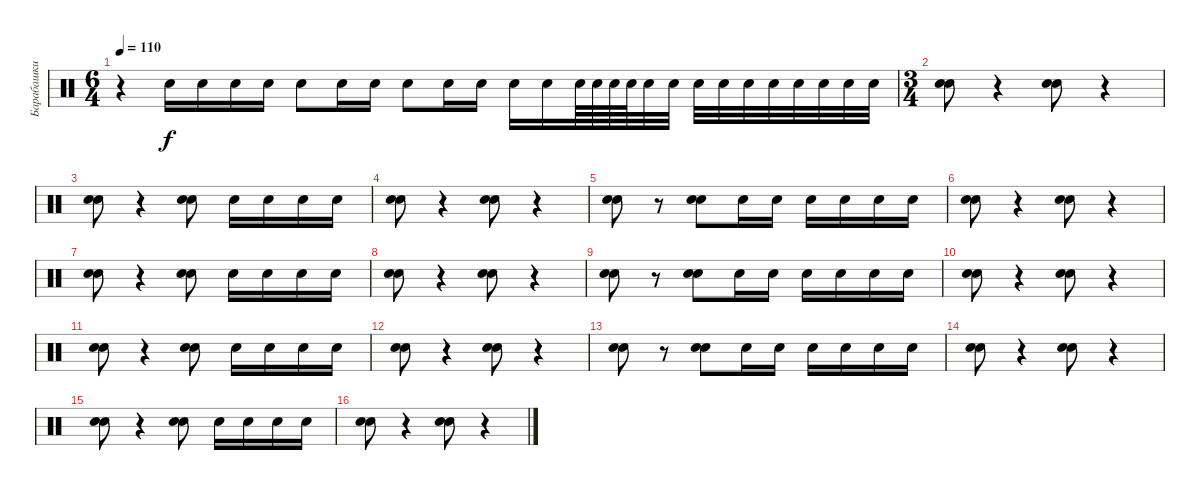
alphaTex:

\track ("Барабашки Middle" "Барабашки ") {instrument percussion}
\staff {score}
\articulation defaults
\ts (6 4)
\tempo 110
\clef neutral
\ks c
r.4{dy f} "Electric Snare (hit)".16 "Electric Snare (hit)".16 "Electric Snare (hit)".16 "Electric Snare (hit)".16 "Electric Snare (hit)".8 "Electric Snare (hit)".16 "Electric Snare (hit)".16 "Electric Snare (hit)".8 "Electric Snare (hit)".16 "Electric Snare (hit)".16 "Electric Snare (hit)".16 "Electric Snare (hit)".16 "Electric Snare (hit)".64 "Electric Snare (hit)".64 "Electric Snare (hit)".64 "Electric Snare (hit)".64 "Electric Snare (hit)".32 "Electric Snare (hit)".32 "Electric Snare (hit)".32 "Electric Snare (hit)".32 "Electric Snare (hit)".32 "Electric Snare (hit)".32 "Electric Snare (hit)".32 "Electric Snare (hit)".32 "Electric Snare (hit)".32 "Electric Snare (hit)".32 |
\ts (3 4)
("Snare (hit) 2" "Electric Snare (hit)").8 r.4 ("Snare (hit) 2" "Electric Snare (hit)").8 r.4 |
("Snare (hit) 2" "Electric Snare (hit)").8 r.4 ("Snare (hit) 2" "Electric Snare (hit)").8 "Electric Snare (hit)".16 "Snare (hit) 2".16 "Electric Snare (hit)".16 "Snare (hit) 2".16 |
("Snare (hit) 2" "Electric Snare (hit)").8 r.4 ("Snare (hit) 2" "Electric Snare (hit)").8 r.4 |
("Snare (hit) 2" "Electric Snare (hit)").8 r.8 ("Snare (hit) 2" "Electric Snare (hit)").8 "Snare (hit) 2".16 "Electric Snare (hit)".16 "Electric Snare (hit)".16 "Snare (hit) 2".16 "Electric Snare (hit)".16 "Snare (hit) 2".16 |
("Snare (hit) 2" "Electric Snare (hit)").8 r.4 ("Snare (hit) 2" "Electric Snare (hit)").8 r.4 |
("Snare (hit) 2" "Electric Snare (hit)").8 r.4 ("Snare (hit) 2" "Electric Snare (hit)").8 "Electric Snare (hit)".16 "Snare (hit) 2".16 "Electric Snare (hit)".16 "Snare (hit) 2".16 |
("Snare (hit) 2" "Electric Snare (hit)").8 r.4 ("Snare (hit) 2" "Electric Snare (hit)").8 r.4 |
("Snare (hit) 2" "Electric Snare (hit)").8 r.8 ("Snare (hit) 2" "Electric Snare (hit)").8 "Snare (hit) 2".16 "Electric Snare (hit)".16 "Electric Snare (hit)".16 "Snare (hit) 2".16 "Electric Snare (hit)".16 "Snare (hit) 2".16 |
("Snare (hit) 2" "Electric Snare (hit)").8 r.4 ("Snare (hit) 2" "Electric Snare (hit)").8 r.4 |
("Snare (hit) 2" "Electric Snare (hit)").8 r.4 ("Snare (hit) 2" "Electric Snare (hit)").8 "Electric Snare (hit)".16 "Snare (hit) 2".16 "Electric Snare (hit)".16 "Snare (hit) 2".16 |
("Snare (hit) 2" "Electric Snare (hit)").8 r.4 ("Snare (hit) 2" "Electric Snare (hit)").8 r.4 |
("Snare (hit) 2" "Electric Snare (hit)").8 r.8 ("Snare (hit) 2" "Electric Snare (hit)").8 "Snare (hit) 2".16 "Electric Snare (hit)".16 "Electric Snare (hit)".16 "Snare (hit) 2".16 "Electric Snare (hit)".16 "Snare (hit) 2".16 |
("Snare (hit) 2" "Electric Snare (hit)").8 r.4 ("Snare (hit) 2" "Electric Snare (hit)").8 r.4 |
("Snare (hit) 2" "Electric Snare (hit)").8 r.4 ("Snare (hit) 2" "Electric Snare (hit)").8 "Electric Snare (hit)".16 "Snare (hit) 2".16 "Electric Snare (hit)".16 "Snare (hit) 2".16 |
("Snare (hit) 2" "Electric Snare (hit)").8 r.4 ("Snare (hit) 2" "Electric Snare (hit)").8 r.4
